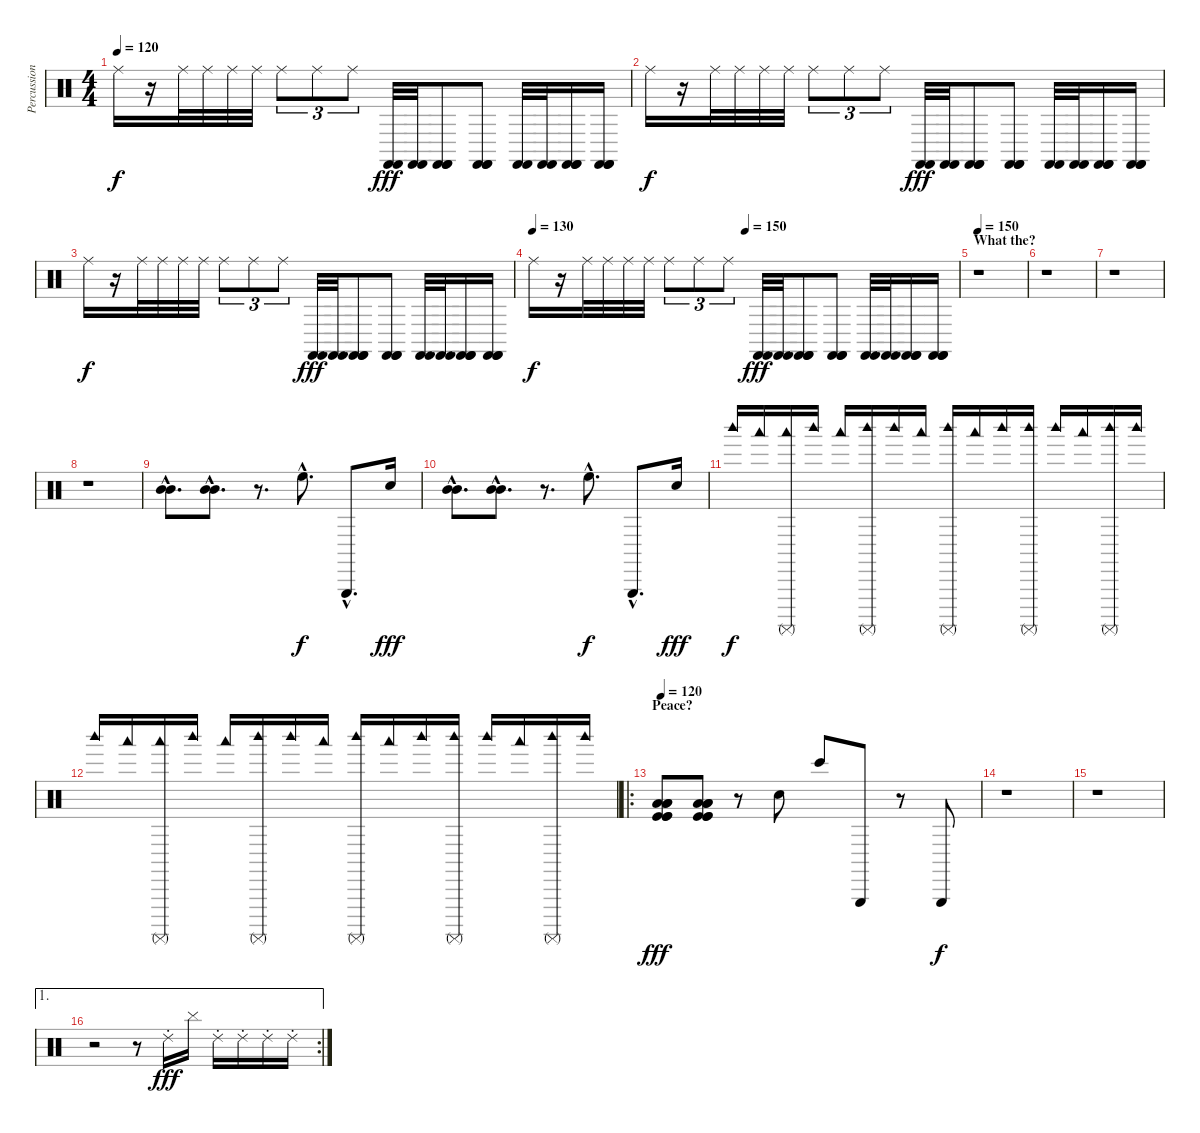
\track ("Percussion" "Percussion") {instrument percussion}
\staff {score}
\articulation defaults
\ts (4 4)
\tempo 120
\clef neutral
\ks c "Ride (middle)".16{dy f}
r.16 "Ride (middle)".32 "Ride (middle)".32 "Ride (middle)".32 "Ride (middle)".32 "Ride (middle)".8{tu (3 2)} "Ride (middle)".8{tu (3 2)} "Ride (middle)".8{tu (3 2)} ("Castanets (hit)" "Castanets (hit)").32{dy fff} ("Castanets (hit)" "Castanets (hit)").32 ("Castanets (hit)" "Castanets (hit)" "Castanets (hit)").8 ("Castanets (hit)" "Castanets (hit)" "Castanets (hit)").8 ("Castanets (hit)" "Castanets (hit)").32 ("Castanets (hit)" "Castanets (hit)").32 ("Castanets (hit)" "Castanets (hit)" "Castanets (hit)").16 ("Castanets (hit)" "Castanets (hit)" "Castanets (hit)").16 |
"Ride (middle)".16{dy f} r.16 "Ride (middle)".32 "Ride (middle)".32 "Ride (middle)".32 "Ride (middle)".32 "Ride (middle)".8{tu (3 2)} "Ride (middle)".8{tu (3 2)} "Ride (middle)".8{tu (3 2)} ("Castanets (hit)" "Castanets (hit)").32{dy fff} ("Castanets (hit)" "Castanets (hit)").32 ("Castanets (hit)" "Castanets (hit)" "Castanets (hit)").8 ("Castanets (hit)" "Castanets (hit)" "Castanets (hit)").8 ("Castanets (hit)" "Castanets (hit)").32 ("Castanets (hit)" "Castanets (hit)").32 ("Castanets (hit)" "Castanets (hit)" "Castanets (hit)").16 ("Castanets (hit)" "Castanets (hit)" "Castanets (hit)").16 |
"Ride (middle)".16{dy f} r.16 "Ride (middle)".32 "Ride (middle)".32 "Ride (middle)".32 "Ride (middle)".32 "Ride (middle)".8{tu (3 2)} "Ride (middle)".8{tu (3 2)} "Ride (middle)".8{tu (3 2)} ("Castanets (hit)" "Castanets (hit)").32{dy fff} ("Castanets (hit)" "Castanets (hit)").32 ("Castanets (hit)" "Castanets (hit)" "Castanets (hit)").8 ("Castanets (hit)" "Castanets (hit)" "Castanets (hit)").8 ("Castanets (hit)" "Castanets (hit)").32 ("Castanets (hit)" "Castanets (hit)").32 ("Castanets (hit)" "Castanets (hit)" "Castanets (hit)").16 ("Castanets (hit)" "Castanets (hit)" "Castanets (hit)").16 |
\tempo 130
\tempo (150 0.5)
"Ride (middle)".16{dy f} r.16 "Ride (middle)".32 "Ride (middle)".32 "Ride (middle)".32 "Ride (middle)".32 "Ride (middle)".8{tu (3 2)} "Ride (middle)".8{tu (3 2)} "Ride (middle)".8{tu (3 2)} ("Castanets (hit)" "Castanets (hit)").32{dy fff} ("Castanets (hit)" "Castanets (hit)").32 ("Castanets (hit)" "Castanets (hit)" "Castanets (hit)").8 ("Castanets (hit)" "Castanets (hit)" "Castanets (hit)").8 ("Castanets (hit)" "Castanets (hit)").32 ("Castanets (hit)" "Castanets (hit)").32 ("Castanets (hit)" "Castanets (hit)" "Castanets (hit)").16 ("Castanets (hit)" "Castanets (hit)" "Castanets (hit)").16 |
\section ("" "What the?")
\tempo 150
r.1 |
r.1 |
r.1 |
r.1 |
("Mid Tom (hit)"{hac} "Mid Tom (hit)"{hac}).8{d} ("Mid Tom (hit)"{hac} "Mid Tom (hit)"{hac}).8{d} r.8{d} "High Floor Tom (hit)"{hac}.8{d dy f} "Triangle (hit)"{hac}.8{d} "Hand Clap (hit)".16{dy fff} |
("Mid Tom (hit)"{hac} "Mid Tom (hit)"{hac}).8{d} ("Mid Tom (hit)"{hac} "Mid Tom (hit)"{hac}).8{d} r.8{d} "High Floor Tom (hit)"{hac}.8{d dy f} "Triangle (hit)"{hac}.8{d} "Hand Clap (hit)".16{dy fff} |
"Woodblock high (hit)".16{dy f} "Woodblock low (hit)".16 ("Woodblock low (hit)" "Surdo (mute)").16 "Woodblock high (hit)".16 "Woodblock low (hit)".16 ("Woodblock high (hit)" "Surdo (mute)").16 "Woodblock high (hit)".16 "Woodblock low (hit)".16 ("Woodblock high (hit)" "Surdo (mute)").16 "Woodblock low (hit)".16 "Woodblock high (hit)".16 ("Woodblock high (hit)" "Surdo (mute)").16 "Woodblock high (hit)".16 "Woodblock low (hit)".16 ("Woodblock high (hit)" "Surdo (mute)").16 "Woodblock high (hit)".16 |
"Woodblock high (hit)".16 "Woodblock low (hit)".16 ("Woodblock low (hit)" "Surdo (mute)").16 "Woodblock high (hit)".16 "Woodblock low (hit)".16 ("Woodblock high (hit)" "Surdo (mute)").16 "Woodblock high (hit)".16 "Woodblock low (hit)".16 ("Woodblock high (hit)" "Surdo (mute)").16 "Woodblock low (hit)".16 "Woodblock high (hit)".16 ("Woodblock high (hit)" "Surdo (mute)").16 "Woodblock high (hit)".16 "Woodblock low (hit)".16 ("Woodblock high (hit)" "Surdo (mute)").16 "Woodblock high (hit)".16 |
\ro
\section ("" "Peace?")
\tempo 120
("Low Floor Tom (hit)" "Low Floor Tom (hit)" "Low Floor Tom (hit)" "Kick (hit)" "Kick (hit)" "Kick (hit)").8{dy fff} ("Low Floor Tom (hit)" "Low Floor Tom (hit)" "Low Floor Tom (hit)" "Kick (hit)" "Kick (hit)" "Kick (hit)").8 r.8 "Hand Clap (hit)".8 "Bongo High (hit)".8 "Triangle (hit)".8 r.8 "Triangle (hit)".8{dy f} |
r.1 |
r.1 |
\ae 1
\rc 2
r.2 r.8 "Ride (choke) 2".16{dy fff} "Cymbal (hit)".16 "Ride (choke) 2".16 "Ride (choke) 2".16 "Ride (choke) 2".16 "Ride (choke) 2".16
